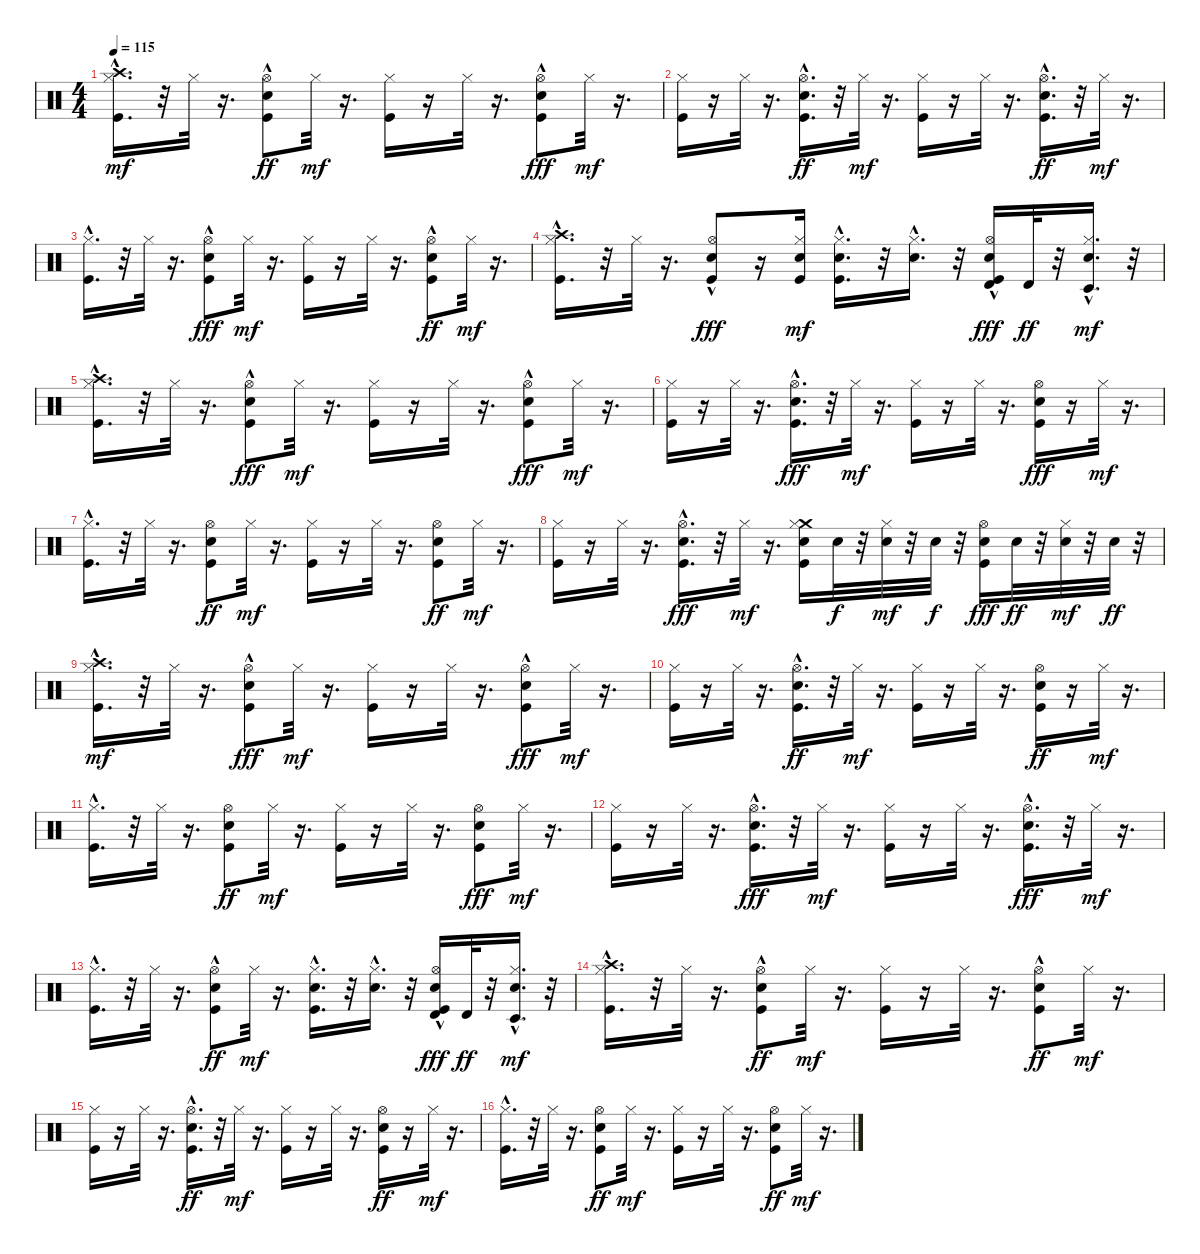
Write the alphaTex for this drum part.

\track "" {instrument percussion}
\staff {score}
\articulation defaults
\ts (4 4)
\tempo 115
\clef neutral
\ks c
("Crash high (hit)" "Kick (hit)"{hac} "Hi-Hat (closed)").16{d dy mf} r.32 "Hi-Hat (closed)".32 r.16{d} ("Hi-Hat (open)" "Kick (hit)"{hac} "Electric Snare (hit)"{hac}).8{dy ff} "Hi-Hat (closed)".32{dy mf} r.16{d} ("Kick (hit)" "Hi-Hat (closed)").16 r.16 "Hi-Hat (closed)".32 r.16{d} ("Kick (hit)"{hac} "Hi-Hat (open)" "Electric Snare (hit)"{hac}).8{dy fff} "Hi-Hat (closed)".32{dy mf} r.16{d} |
("Kick (hit)" "Hi-Hat (closed)").16 r.16 "Hi-Hat (closed)".32 r.16{d} ("Hi-Hat (open)"{hac} "Kick (hit)"{hac} "Electric Snare (hit)").16{d dy ff} r.32 "Hi-Hat (closed)".32{dy mf} r.16{d} ("Kick (hit)" "Hi-Hat (closed)").16 r.16 "Hi-Hat (closed)".32 r.16{d} ("Kick (hit)"{hac} "Electric Snare (hit)" "Hi-Hat (open)").16{d dy ff} r.32 "Hi-Hat (closed)".32{dy mf} r.16{d} |
("Kick (hit)"{hac} "Hi-Hat (closed)").16{d} r.32 "Hi-Hat (closed)".32 r.16{d} ("Electric Snare (hit)" "Hi-Hat (open)" "Kick (hit)"{hac}).8{dy fff} "Hi-Hat (closed)".32{dy mf} r.16{d} ("Kick (hit)" "Hi-Hat (closed)").16 r.16 "Hi-Hat (closed)".32 r.16{d} ("Kick (hit)"{hac} "Electric Snare (hit)" "Hi-Hat (open)").8{dy ff} "Hi-Hat (closed)".32{dy mf} r.16{d} |
("Kick (hit)"{hac} "Crash high (hit)" "Hi-Hat (closed)").16{d} r.32 "Hi-Hat (closed)".32 r.16{d} ("Electric Snare (hit)"{hac} "Hi-Hat (open)" "Kick (hit)"{hac}).8{dy fff} r.16 ("Electric Snare (hit)" "Kick (hit)" "Hi-Hat (closed)").16{dy mf} ("Electric Snare (hit)"{hac} "Kick (hit)"{hac} "Hi-Hat (closed)").16{d} r.32 ("Electric Snare (hit)"{hac} "Hi-Hat (closed)").16{d} r.32 ("Timbale high (hit)" "Kick (hit)" "Hi-Hat (open)" "Electric Snare (hit)"{hac}).16{dy fff} "Timbale high (hit)".32{dy ff} r.32 ("Electric Snare (hit)"{hac} "Timbale low (hit)" "Hi-Hat (closed)").16{d dy mf} r.32 |
("Kick (hit)"{hac} "Crash high (hit)" "Hi-Hat (closed)").16{d} r.32 "Hi-Hat (closed)".32 r.16{d} ("Hi-Hat (open)" "Electric Snare (hit)"{hac} "Kick (hit)").8{dy fff} "Hi-Hat (closed)".32{dy mf} r.16{d} ("Kick (hit)" "Hi-Hat (closed)").16 r.16 "Hi-Hat (closed)".32 r.16{d} ("Hi-Hat (open)" "Kick (hit)" "Electric Snare (hit)"{hac}).8{dy fff} "Hi-Hat (closed)".32{dy mf} r.16{d} |
("Kick (hit)" "Hi-Hat (closed)").16 r.16 "Hi-Hat (closed)".32 r.16{d} ("Electric Snare (hit)" "Kick (hit)" "Hi-Hat (open)"{hac}).16{d dy fff} r.32 "Hi-Hat (closed)".32{dy mf} r.16{d} ("Kick (hit)" "Hi-Hat (closed)").16 r.16 "Hi-Hat (closed)".32 r.16{d} ("Electric Snare (hit)" "Hi-Hat (open)" "Kick (hit)").16{dy fff} r.16 "Hi-Hat (closed)".32{dy mf} r.16{d} |
("Kick (hit)"{hac} "Hi-Hat (closed)").16{d} r.32 "Hi-Hat (closed)".32 r.16{d} ("Electric Snare (hit)" "Kick (hit)" "Hi-Hat (open)").8{dy ff} "Hi-Hat (closed)".32{dy mf} r.16{d} ("Kick (hit)" "Hi-Hat (closed)").16 r.16 "Hi-Hat (closed)".32 r.16{d} ("Kick (hit)" "Electric Snare (hit)" "Hi-Hat (open)").8{dy ff} "Hi-Hat (closed)".32{dy mf} r.16{d} |
("Kick (hit)" "Hi-Hat (closed)").16 r.16 "Hi-Hat (closed)".32 r.16{d} ("Electric Snare (hit)" "Hi-Hat (open)"{hac} "Kick (hit)").16{d dy fff} r.32 "Hi-Hat (closed)".32{dy mf} r.16{d} ("Crash medium (hit)" "Kick (hit)" "Electric Snare (hit)" "Hi-Hat (closed)").16 "Electric Snare (hit)".32{dy f} r.32 ("Electric Snare (hit)" "Hi-Hat (closed)").32{dy mf} r.32 "Electric Snare (hit)".32{dy f} r.32 ("Hi-Hat (open)" "Electric Snare (hit)" "Kick (hit)").16{dy fff} "Electric Snare (hit)".32{dy ff} r.32 ("Electric Snare (hit)" "Hi-Hat (closed)").32{dy mf} r.32 "Electric Snare (hit)".32{dy ff} r.32 |
("Crash high (hit)" "Kick (hit)"{hac} "Hi-Hat (closed)").16{d dy mf} r.32 "Hi-Hat (closed)".32 r.16{d} ("Electric Snare (hit)"{hac} "Hi-Hat (open)" "Kick (hit)").8{dy fff} "Hi-Hat (closed)".32{dy mf} r.16{d} ("Kick (hit)" "Hi-Hat (closed)").16 r.16 "Hi-Hat (closed)".32 r.16{d} ("Electric Snare (hit)"{hac} "Hi-Hat (open)" "Kick (hit)").8{dy fff} "Hi-Hat (closed)".32{dy mf} r.16{d} |
("Kick (hit)" "Hi-Hat (closed)").16 r.16 "Hi-Hat (closed)".32 r.16{d} ("Hi-Hat (open)"{hac} "Kick (hit)" "Electric Snare (hit)").16{d dy ff} r.32 "Hi-Hat (closed)".32{dy mf} r.16{d} ("Kick (hit)" "Hi-Hat (closed)").16 r.16 "Hi-Hat (closed)".32 r.16{d} ("Hi-Hat (open)" "Kick (hit)" "Electric Snare (hit)").16{dy ff} r.16 "Hi-Hat (closed)".32{dy mf} r.16{d} |
("Kick (hit)"{hac} "Hi-Hat (closed)").16{d} r.32 "Hi-Hat (closed)".32 r.16{d} ("Electric Snare (hit)" "Kick (hit)" "Hi-Hat (open)").8{dy ff} "Hi-Hat (closed)".32{dy mf} r.16{d} ("Kick (hit)" "Hi-Hat (closed)").16 r.16 "Hi-Hat (closed)".32 r.16{d} ("Hi-Hat (open)" "Kick (hit)" "Electric Snare (hit)").8{dy fff} "Hi-Hat (closed)".32{dy mf} r.16{d} |
("Kick (hit)" "Hi-Hat (closed)").16 r.16 "Hi-Hat (closed)".32 r.16{d} ("Electric Snare (hit)" "Hi-Hat (open)"{hac} "Kick (hit)").16{d dy fff} r.32 "Hi-Hat (closed)".32{dy mf} r.16{d} ("Kick (hit)" "Hi-Hat (closed)").16 r.16 "Hi-Hat (closed)".32 r.16{d} ("Electric Snare (hit)"{hac} "Hi-Hat (open)" "Kick (hit)").16{d dy fff} r.32 "Hi-Hat (closed)".32{dy mf} r.16{d} |
("Kick (hit)"{hac} "Hi-Hat (closed)").16{d} r.32 "Hi-Hat (closed)".32 r.16{d} ("Hi-Hat (open)" "Kick (hit)" "Electric Snare (hit)"{hac}).8{dy ff} "Hi-Hat (closed)".32{dy mf} r.16{d} ("Electric Snare (hit)"{hac} "Kick (hit)"{hac} "Hi-Hat (closed)").16{d} r.32 ("Electric Snare (hit)"{hac} "Hi-Hat (closed)").16{d} r.32 ("Timbale high (hit)" "Hi-Hat (open)" "Kick (hit)" "Electric Snare (hit)"{hac}).16{dy fff} "Timbale high (hit)".32{dy ff} r.32 ("Timbale low (hit)" "Electric Snare (hit)"{hac} "Hi-Hat (closed)").16{d dy mf} r.32 |
("Kick (hit)"{hac} "Crash high (hit)" "Hi-Hat (closed)").16{d} r.32 "Hi-Hat (closed)".32 r.16{d} ("Hi-Hat (open)" "Kick (hit)" "Electric Snare (hit)"{hac}).8{dy ff} "Hi-Hat (closed)".32{dy mf} r.16{d} ("Kick (hit)" "Hi-Hat (closed)").16 r.16 "Hi-Hat (closed)".32 r.16{d} ("Electric Snare (hit)"{hac} "Kick (hit)" "Hi-Hat (open)").8{dy ff} "Hi-Hat (closed)".32{dy mf} r.16{d} |
("Kick (hit)" "Hi-Hat (closed)").16 r.16 "Hi-Hat (closed)".32 r.16{d} ("Hi-Hat (open)"{hac} "Kick (hit)" "Electric Snare (hit)").16{d dy ff} r.32 "Hi-Hat (closed)".32{dy mf} r.16{d} ("Kick (hit)" "Hi-Hat (closed)").16 r.16 "Hi-Hat (closed)".32 r.16{d} ("Hi-Hat (open)" "Kick (hit)" "Electric Snare (hit)").16{dy ff} r.16 "Hi-Hat (closed)".32{dy mf} r.16{d} |
("Kick (hit)"{hac} "Hi-Hat (closed)").16{d} r.32 "Hi-Hat (closed)".32 r.16{d} ("Electric Snare (hit)" "Kick (hit)" "Hi-Hat (open)").8{dy ff} "Hi-Hat (closed)".32{dy mf} r.16{d} ("Kick (hit)" "Hi-Hat (closed)").16 r.16 "Hi-Hat (closed)".32 r.16{d} ("Electric Snare (hit)" "Kick (hit)" "Hi-Hat (open)").8{dy ff} "Hi-Hat (closed)".32{dy mf} r.16{d}
